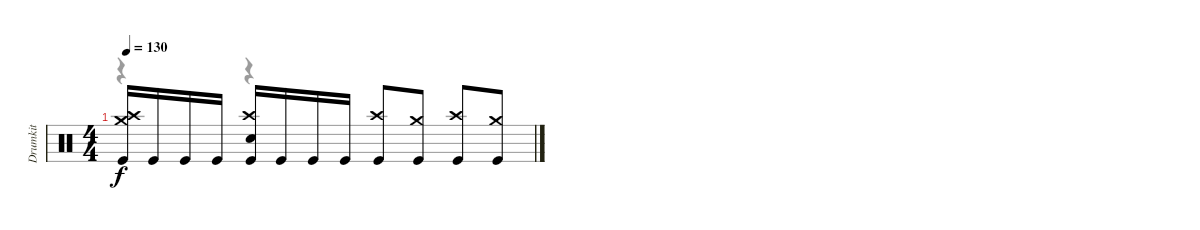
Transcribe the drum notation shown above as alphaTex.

\track ("Drumkit" "Drumkit") {instrument percussion}
\staff {score}
\articulation defaults
\voice
\ts (4 4)
\tempo 130
\clef neutral
\ks c
("Crash high (hit)" "Crash medium (hit)" "Kick (hit)").16{dy f} "Kick (hit)".16 "Kick (hit)".16 "Kick (hit)".16 ("Crash high (hit)" "Snare (hit) 2" "Kick (hit)").16 "Kick (hit)".16 "Kick (hit)".16 "Kick (hit)".16 ("Crash high (hit)" "Kick (hit)").8 ("Crash medium (hit)" "Kick (hit)").8 ("Crash high (hit)" "Kick (hit)").8 ("Crash medium (hit)" "Kick (hit)").8
\voice
\clef neutral
\ottava regular
\simile none
\ks c
r.4{dy f} r.4
